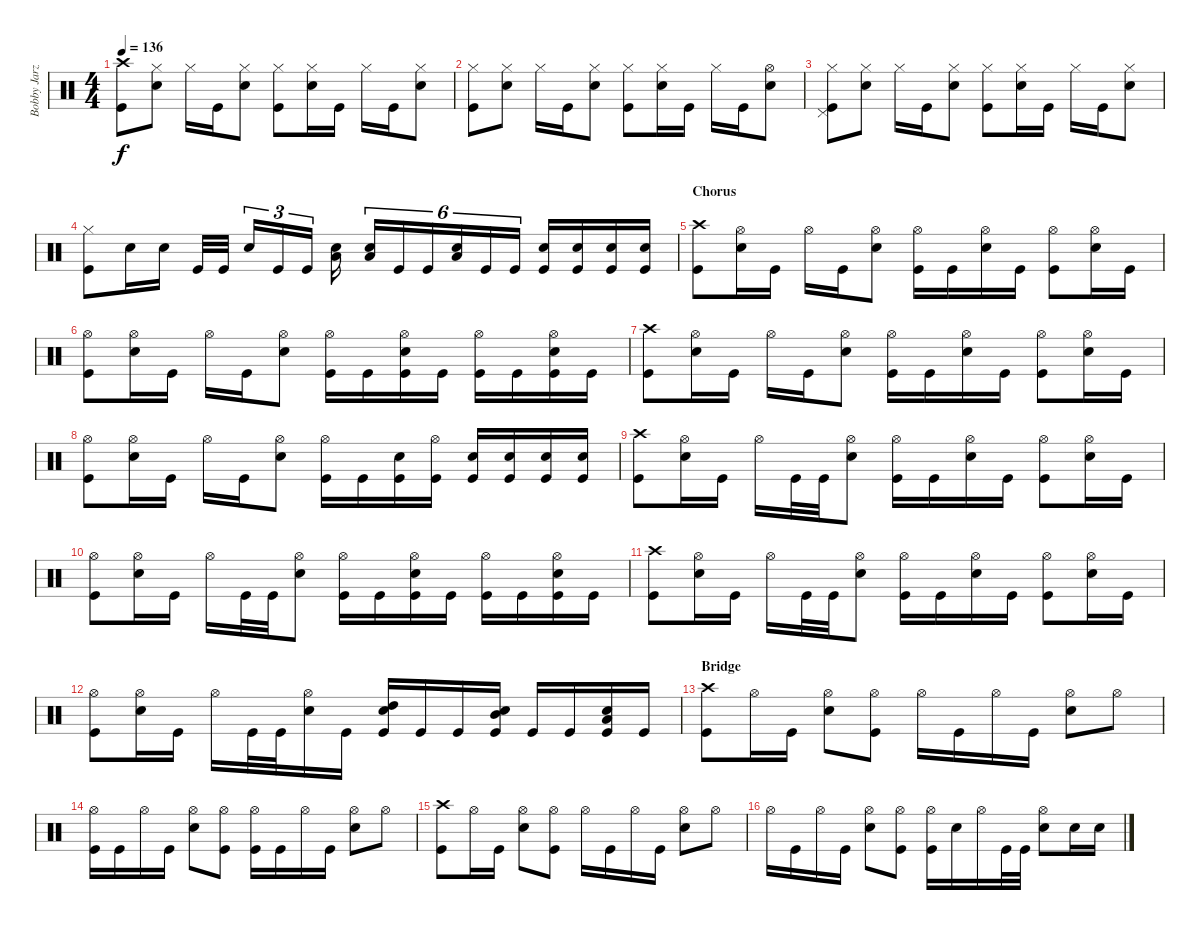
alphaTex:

\track ("Bobby Jarzombek" "Bobby Jarz") {instrument percussion}
\staff {score}
\articulation defaults
\ts (4 4)
\tempo 136
\clef neutral
\ks c
("Crash high (hit)" "Kick (hit)").8{dy f} ("Hi-Hat (closed)" "Electric Snare (hit)").8 "Hi-Hat (closed)".16 "Kick (hit)".16 ("Hi-Hat (closed)" "Electric Snare (hit)").8 ("Hi-Hat (closed)" "Kick (hit)").8 ("Hi-Hat (closed)" "Electric Snare (hit)").16 "Kick (hit)".16 "Hi-Hat (closed)".16 "Kick (hit)".16 ("Hi-Hat (closed)" "Electric Snare (hit)").8 |
("Hi-Hat (closed)" "Kick (hit)").8 ("Hi-Hat (closed)" "Electric Snare (hit)").8 "Hi-Hat (closed)".16 "Kick (hit)".16 ("Hi-Hat (closed)" "Electric Snare (hit)").8 ("Hi-Hat (closed)" "Kick (hit)").8 ("Hi-Hat (closed)" "Electric Snare (hit)").16 "Kick (hit)".16 "Hi-Hat (closed)".16 "Kick (hit)".16 ("Hi-Hat (open)" "Electric Snare (hit)").8 |
("Hi-Hat (closed)" "Pedal Hi-Hat (hit)" "Kick (hit)").8 ("Hi-Hat (closed)" "Electric Snare (hit)").8 "Hi-Hat (closed)".16 "Kick (hit)".16 ("Hi-Hat (closed)" "Electric Snare (hit)").8 ("Hi-Hat (closed)" "Kick (hit)").8 ("Hi-Hat (closed)" "Electric Snare (hit)").16 "Kick (hit)".16 "Hi-Hat (closed)".16 "Kick (hit)".16 ("Hi-Hat (closed)" "Electric Snare (hit)").8 |
("Hi-Hat (closed)" "Kick (hit)").8 "Electric Snare (hit)".16 "Electric Snare (hit)".16 "Kick (hit)".32 "Kick (hit)".32 "Electric Snare (hit)".16{tu (3 2)} "Kick (hit)".16{tu (3 2)} "Kick (hit)".16{tu (3 2)} ("Low Tom (hit)" "Electric Snare (hit)").16 ("Low Tom (hit)" "Electric Snare (hit)").16{tu (6 4)} "Kick (hit)".16{tu (6 4)} "Kick (hit)".16{tu (6 4)} ("Low Tom (hit)" "Electric Snare (hit)").16{tu (6 4)} "Kick (hit)".16{tu (6 4)} "Kick (hit)".16{tu (6 4)} ("Electric Snare (hit)" "Kick (hit)").16 ("Electric Snare (hit)" "Kick (hit)").16 ("Electric Snare (hit)" "Kick (hit)").16 ("Electric Snare (hit)" "Kick (hit)").16 |
\section ("" "Chorus")
("Crash high (hit)" "Kick (hit)").8 ("Hi-Hat (open)" "Electric Snare (hit)").16 "Kick (hit)".16 "Hi-Hat (open)".16 "Kick (hit)".16 ("Hi-Hat (open)" "Electric Snare (hit)").8 ("Hi-Hat (open)" "Kick (hit)").16 "Kick (hit)".16 ("Hi-Hat (open)" "Electric Snare (hit)").16 "Kick (hit)".16 ("Hi-Hat (open)" "Kick (hit)").8 ("Hi-Hat (open)" "Electric Snare (hit)").16 "Kick (hit)".16 |
("Hi-Hat (open)" "Kick (hit)").8 ("Hi-Hat (open)" "Electric Snare (hit)").16 "Kick (hit)".16 "Hi-Hat (open)".16 "Kick (hit)".16 ("Hi-Hat (open)" "Electric Snare (hit)").8 ("Hi-Hat (open)" "Kick (hit)").16 "Kick (hit)".16 ("Hi-Hat (open)" "Electric Snare (hit)" "Kick (hit)").16 "Kick (hit)".16 ("Hi-Hat (open)" "Kick (hit)").16 "Kick (hit)".16 ("Hi-Hat (open)" "Electric Snare (hit)" "Kick (hit)").16 "Kick (hit)".16 |
("Crash high (hit)" "Kick (hit)").8 ("Hi-Hat (open)" "Electric Snare (hit)").16 "Kick (hit)".16 "Hi-Hat (open)".16 "Kick (hit)".16 ("Hi-Hat (open)" "Electric Snare (hit)").8 ("Hi-Hat (open)" "Kick (hit)").16 "Kick (hit)".16 ("Hi-Hat (open)" "Electric Snare (hit)").16 "Kick (hit)".16 ("Hi-Hat (open)" "Kick (hit)").8 ("Hi-Hat (open)" "Electric Snare (hit)").16 "Kick (hit)".16 |
("Hi-Hat (open)" "Kick (hit)").8 ("Hi-Hat (open)" "Electric Snare (hit)").16 "Kick (hit)".16 "Hi-Hat (open)".16 "Kick (hit)".16 ("Hi-Hat (open)" "Electric Snare (hit)").8 ("Hi-Hat (open)" "Kick (hit)").16 "Kick (hit)".16 ("Electric Snare (hit)" "Kick (hit)").16 ("Hi-Hat (open)" "Kick (hit)").16 ("Electric Snare (hit)" "Kick (hit)").16 ("Electric Snare (hit)" "Kick (hit)").16 ("Electric Snare (hit)" "Kick (hit)").16 ("Electric Snare (hit)" "Kick (hit)").16 |
("Crash high (hit)" "Kick (hit)").8 ("Hi-Hat (open)" "Electric Snare (hit)").16 "Kick (hit)".16 "Hi-Hat (open)".16 "Kick (hit)".32 "Kick (hit)".32 ("Hi-Hat (open)" "Electric Snare (hit)").8 ("Hi-Hat (open)" "Kick (hit)").16 "Kick (hit)".16 ("Hi-Hat (open)" "Electric Snare (hit)").16 "Kick (hit)".16 ("Hi-Hat (open)" "Kick (hit)").8 ("Hi-Hat (open)" "Electric Snare (hit)").16 "Kick (hit)".16 |
("Hi-Hat (open)" "Kick (hit)").8 ("Hi-Hat (open)" "Electric Snare (hit)").16 "Kick (hit)".16 "Hi-Hat (open)".16 "Kick (hit)".32 "Kick (hit)".32 ("Hi-Hat (open)" "Electric Snare (hit)").8 ("Hi-Hat (open)" "Kick (hit)").16 "Kick (hit)".16 ("Hi-Hat (open)" "Electric Snare (hit)" "Kick (hit)").16 "Kick (hit)".16 ("Hi-Hat (open)" "Kick (hit)").16 "Kick (hit)".16 ("Hi-Hat (open)" "Electric Snare (hit)" "Kick (hit)").16 "Kick (hit)".16 |
("Crash high (hit)" "Kick (hit)").8 ("Hi-Hat (open)" "Electric Snare (hit)").16 "Kick (hit)".16 "Hi-Hat (open)".16 "Kick (hit)".32 "Kick (hit)".32 ("Hi-Hat (open)" "Electric Snare (hit)").8 ("Hi-Hat (open)" "Kick (hit)").16 "Kick (hit)".16 ("Hi-Hat (open)" "Electric Snare (hit)").16 "Kick (hit)".16 ("Hi-Hat (open)" "Kick (hit)").8 ("Hi-Hat (open)" "Electric Snare (hit)").16 "Kick (hit)".16 |
("Hi-Hat (open)" "Kick (hit)").8 ("Hi-Hat (open)" "Electric Snare (hit)").16 "Kick (hit)".16 "Hi-Hat (open)".16 "Kick (hit)".32 "Kick (hit)".32 ("Hi-Hat (open)" "Electric Snare (hit)").16 "Kick (hit)".16 ("High Tom (hit)" "Electric Snare (hit)" "Kick (hit)").16 "Kick (hit)".16 "Kick (hit)".16 ("Mid Tom (hit)" "Electric Snare (hit)" "Kick (hit)").16 "Kick (hit)".16 "Kick (hit)".16 ("Low Tom (hit)" "Electric Snare (hit)" "Kick (hit)").16 "Kick (hit)".16 |
\section ("" "Bridge")
("Crash high (hit)" "Kick (hit)").8 "Hi-Hat (open)".16 "Kick (hit)".16 ("Hi-Hat (open)" "Electric Snare (hit)").8 ("Hi-Hat (open)" "Kick (hit)").8 "Hi-Hat (open)".16 "Kick (hit)".16 "Hi-Hat (open)".16 "Kick (hit)".16 ("Hi-Hat (open)" "Electric Snare (hit)").8 "Hi-Hat (open)".8 |
("Hi-Hat (open)" "Kick (hit)").16 "Kick (hit)".16 "Hi-Hat (open)".16 "Kick (hit)".16 ("Hi-Hat (open)" "Electric Snare (hit)").8 ("Hi-Hat (open)" "Kick (hit)").8 ("Hi-Hat (open)" "Kick (hit)").16 "Kick (hit)".16 "Hi-Hat (open)".16 "Kick (hit)".16 ("Hi-Hat (open)" "Electric Snare (hit)").8 "Hi-Hat (open)".8 |
("Crash high (hit)" "Kick (hit)").8 "Hi-Hat (open)".16 "Kick (hit)".16 ("Hi-Hat (open)" "Electric Snare (hit)").8 ("Hi-Hat (open)" "Kick (hit)").8 "Hi-Hat (open)".16 "Kick (hit)".16 "Hi-Hat (open)".16 "Kick (hit)".16 ("Hi-Hat (open)" "Electric Snare (hit)").8 "Hi-Hat (open)".8 |
"Hi-Hat (open)".16 "Kick (hit)".16 "Hi-Hat (open)".16 "Kick (hit)".16 ("Hi-Hat (open)" "Electric Snare (hit)").8 ("Hi-Hat (open)" "Kick (hit)").8 ("Hi-Hat (open)" "Kick (hit)").16 "Electric Snare (hit)".16 "Hi-Hat (open)".16 "Kick (hit)".32 "Kick (hit)".32 ("Hi-Hat (open)" "Electric Snare (hit)").8 "Electric Snare (hit)".16 "Electric Snare (hit)".16
